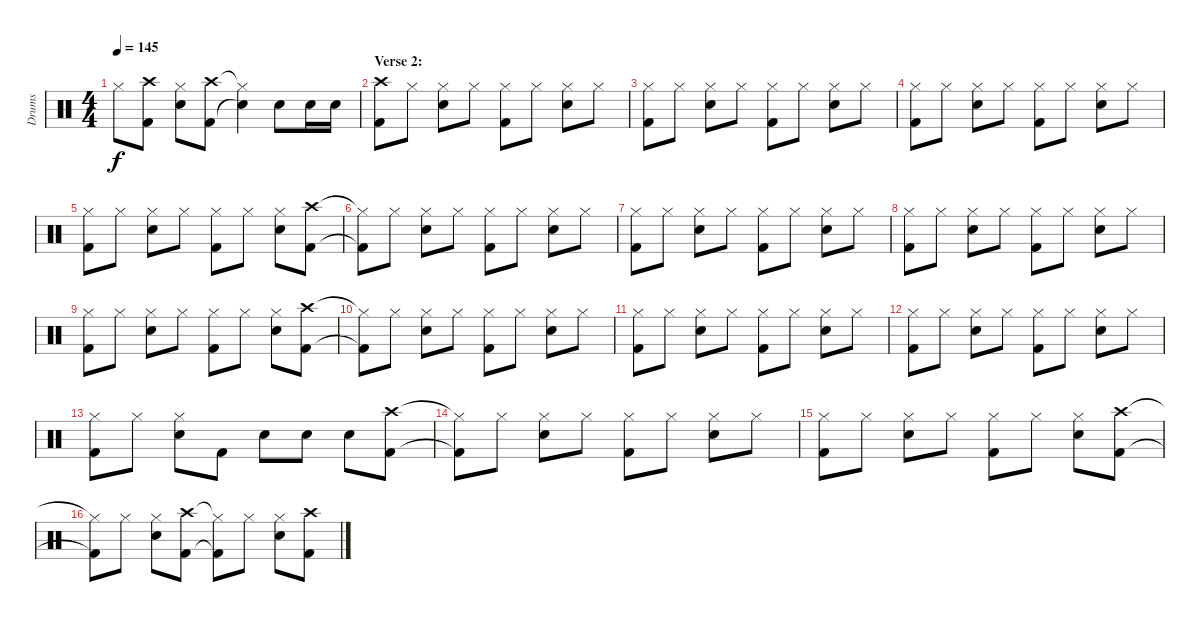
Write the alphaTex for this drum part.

\track ("Drums" "Drums") {instrument percussion}
\staff {score}
\articulation defaults
\ts (4 4)
\tempo 145
\clef neutral
\ks c "Hi-Hat (closed)".8{dy f}
("Crash high (hit)" "Kick (hit) 2").8 ("Hi-Hat (closed)" "Electric Snare (hit)").8 ("Crash high (hit)" "Kick (hit) 2").8 ("Hi-Hat (closed)"{t} "Snare (hit)"{t}).4 "Electric Snare (hit)".8 "Electric Snare (hit)".16 "Electric Snare (hit)".16 |
\section ("" "Verse 2:")
("Crash high (hit)" "Kick (hit) 2").8 "Hi-Hat (closed)".8 ("Hi-Hat (closed)" "Electric Snare (hit)").8 "Hi-Hat (closed)".8 ("Hi-Hat (closed)" "Kick (hit) 2").8 "Hi-Hat (closed)".8 ("Hi-Hat (closed)" "Electric Snare (hit)").8 "Hi-Hat (closed)".8 |
("Hi-Hat (closed)" "Kick (hit) 2").8 "Hi-Hat (closed)".8 ("Hi-Hat (closed)" "Electric Snare (hit)").8 "Hi-Hat (closed)".8 ("Hi-Hat (closed)" "Kick (hit) 2").8 "Hi-Hat (closed)".8 ("Hi-Hat (closed)" "Electric Snare (hit)").8 "Hi-Hat (closed)".8 |
("Hi-Hat (closed)" "Kick (hit) 2").8 "Hi-Hat (closed)".8 ("Hi-Hat (closed)" "Electric Snare (hit)").8 "Hi-Hat (closed)".8 ("Hi-Hat (closed)" "Kick (hit) 2").8 "Hi-Hat (closed)".8 ("Hi-Hat (closed)" "Electric Snare (hit)").8 "Hi-Hat (closed)".8 |
("Hi-Hat (closed)" "Kick (hit) 2").8 "Hi-Hat (closed)".8 ("Hi-Hat (closed)" "Electric Snare (hit)").8 "Hi-Hat (closed)".8 ("Hi-Hat (closed)" "Kick (hit) 2").8 "Hi-Hat (closed)".8 ("Hi-Hat (closed)" "Electric Snare (hit)").8 ("Crash high (hit)" "Kick (hit) 2").8 |
("Hi-Hat (closed)"{t} "Kick (hit) 2"{t}).8 "Hi-Hat (closed)".8 ("Hi-Hat (closed)" "Electric Snare (hit)").8 "Hi-Hat (closed)".8 ("Hi-Hat (closed)" "Kick (hit) 2").8 "Hi-Hat (closed)".8 ("Hi-Hat (closed)" "Electric Snare (hit)").8 "Hi-Hat (closed)".8 |
("Hi-Hat (closed)" "Kick (hit) 2").8 "Hi-Hat (closed)".8 ("Hi-Hat (closed)" "Electric Snare (hit)").8 "Hi-Hat (closed)".8 ("Hi-Hat (closed)" "Kick (hit) 2").8 "Hi-Hat (closed)".8 ("Hi-Hat (closed)" "Electric Snare (hit)").8 "Hi-Hat (closed)".8 |
("Hi-Hat (closed)" "Kick (hit) 2").8 "Hi-Hat (closed)".8 ("Hi-Hat (closed)" "Electric Snare (hit)").8 "Hi-Hat (closed)".8 ("Hi-Hat (closed)" "Kick (hit) 2").8 "Hi-Hat (closed)".8 ("Hi-Hat (closed)" "Electric Snare (hit)").8 "Hi-Hat (closed)".8 |
("Hi-Hat (closed)" "Kick (hit) 2").8 "Hi-Hat (closed)".8 ("Hi-Hat (closed)" "Electric Snare (hit)").8 "Hi-Hat (closed)".8 ("Hi-Hat (closed)" "Kick (hit) 2").8 "Hi-Hat (closed)".8 ("Hi-Hat (closed)" "Electric Snare (hit)").8 ("Crash high (hit)" "Kick (hit) 2").8 |
("Hi-Hat (closed)"{t} "Kick (hit) 2"{t}).8 "Hi-Hat (closed)".8 ("Hi-Hat (closed)" "Electric Snare (hit)").8 "Hi-Hat (closed)".8 ("Hi-Hat (closed)" "Kick (hit) 2").8 "Hi-Hat (closed)".8 ("Hi-Hat (closed)" "Electric Snare (hit)").8 "Hi-Hat (closed)".8 |
("Hi-Hat (closed)" "Kick (hit) 2").8 "Hi-Hat (closed)".8 ("Hi-Hat (closed)" "Electric Snare (hit)").8 "Hi-Hat (closed)".8 ("Hi-Hat (closed)" "Kick (hit) 2").8 "Hi-Hat (closed)".8 ("Hi-Hat (closed)" "Electric Snare (hit)").8 "Hi-Hat (closed)".8 |
("Hi-Hat (closed)" "Kick (hit) 2").8 "Hi-Hat (closed)".8 ("Hi-Hat (closed)" "Electric Snare (hit)").8 "Hi-Hat (closed)".8 ("Hi-Hat (closed)" "Kick (hit) 2").8 "Hi-Hat (closed)".8 ("Hi-Hat (closed)" "Electric Snare (hit)").8 "Hi-Hat (closed)".8 |
("Hi-Hat (closed)" "Kick (hit) 2").8 "Hi-Hat (closed)".8 ("Hi-Hat (closed)" "Electric Snare (hit)").8 "Kick (hit) 2".8 "Electric Snare (hit)".8 "Electric Snare (hit)".8 "Electric Snare (hit)".8 ("Crash high (hit)" "Kick (hit) 2").8 |
("Hi-Hat (closed)"{t} "Kick (hit) 2"{t}).8 "Hi-Hat (closed)".8 ("Hi-Hat (closed)" "Electric Snare (hit)").8 "Hi-Hat (closed)".8 ("Hi-Hat (closed)" "Kick (hit) 2").8 "Hi-Hat (closed)".8 ("Hi-Hat (closed)" "Electric Snare (hit)").8 "Hi-Hat (closed)".8 |
("Hi-Hat (closed)" "Kick (hit) 2").8 "Hi-Hat (closed)".8 ("Hi-Hat (closed)" "Electric Snare (hit)").8 "Hi-Hat (closed)".8 ("Hi-Hat (closed)" "Kick (hit) 2").8 "Hi-Hat (closed)".8 ("Hi-Hat (closed)" "Electric Snare (hit)").8 ("Crash high (hit)" "Kick (hit) 2").8 |
("Hi-Hat (closed)"{t} "Kick (hit) 2"{t}).8 "Hi-Hat (closed)".8 ("Hi-Hat (closed)" "Electric Snare (hit)").8 ("Crash high (hit)" "Kick (hit) 2").8 ("Hi-Hat (closed)"{t} "Kick (hit) 2"{t}).8 "Hi-Hat (closed)".8 ("Hi-Hat (closed)" "Electric Snare (hit)").8 ("Crash high (hit)" "Kick (hit) 2").8
